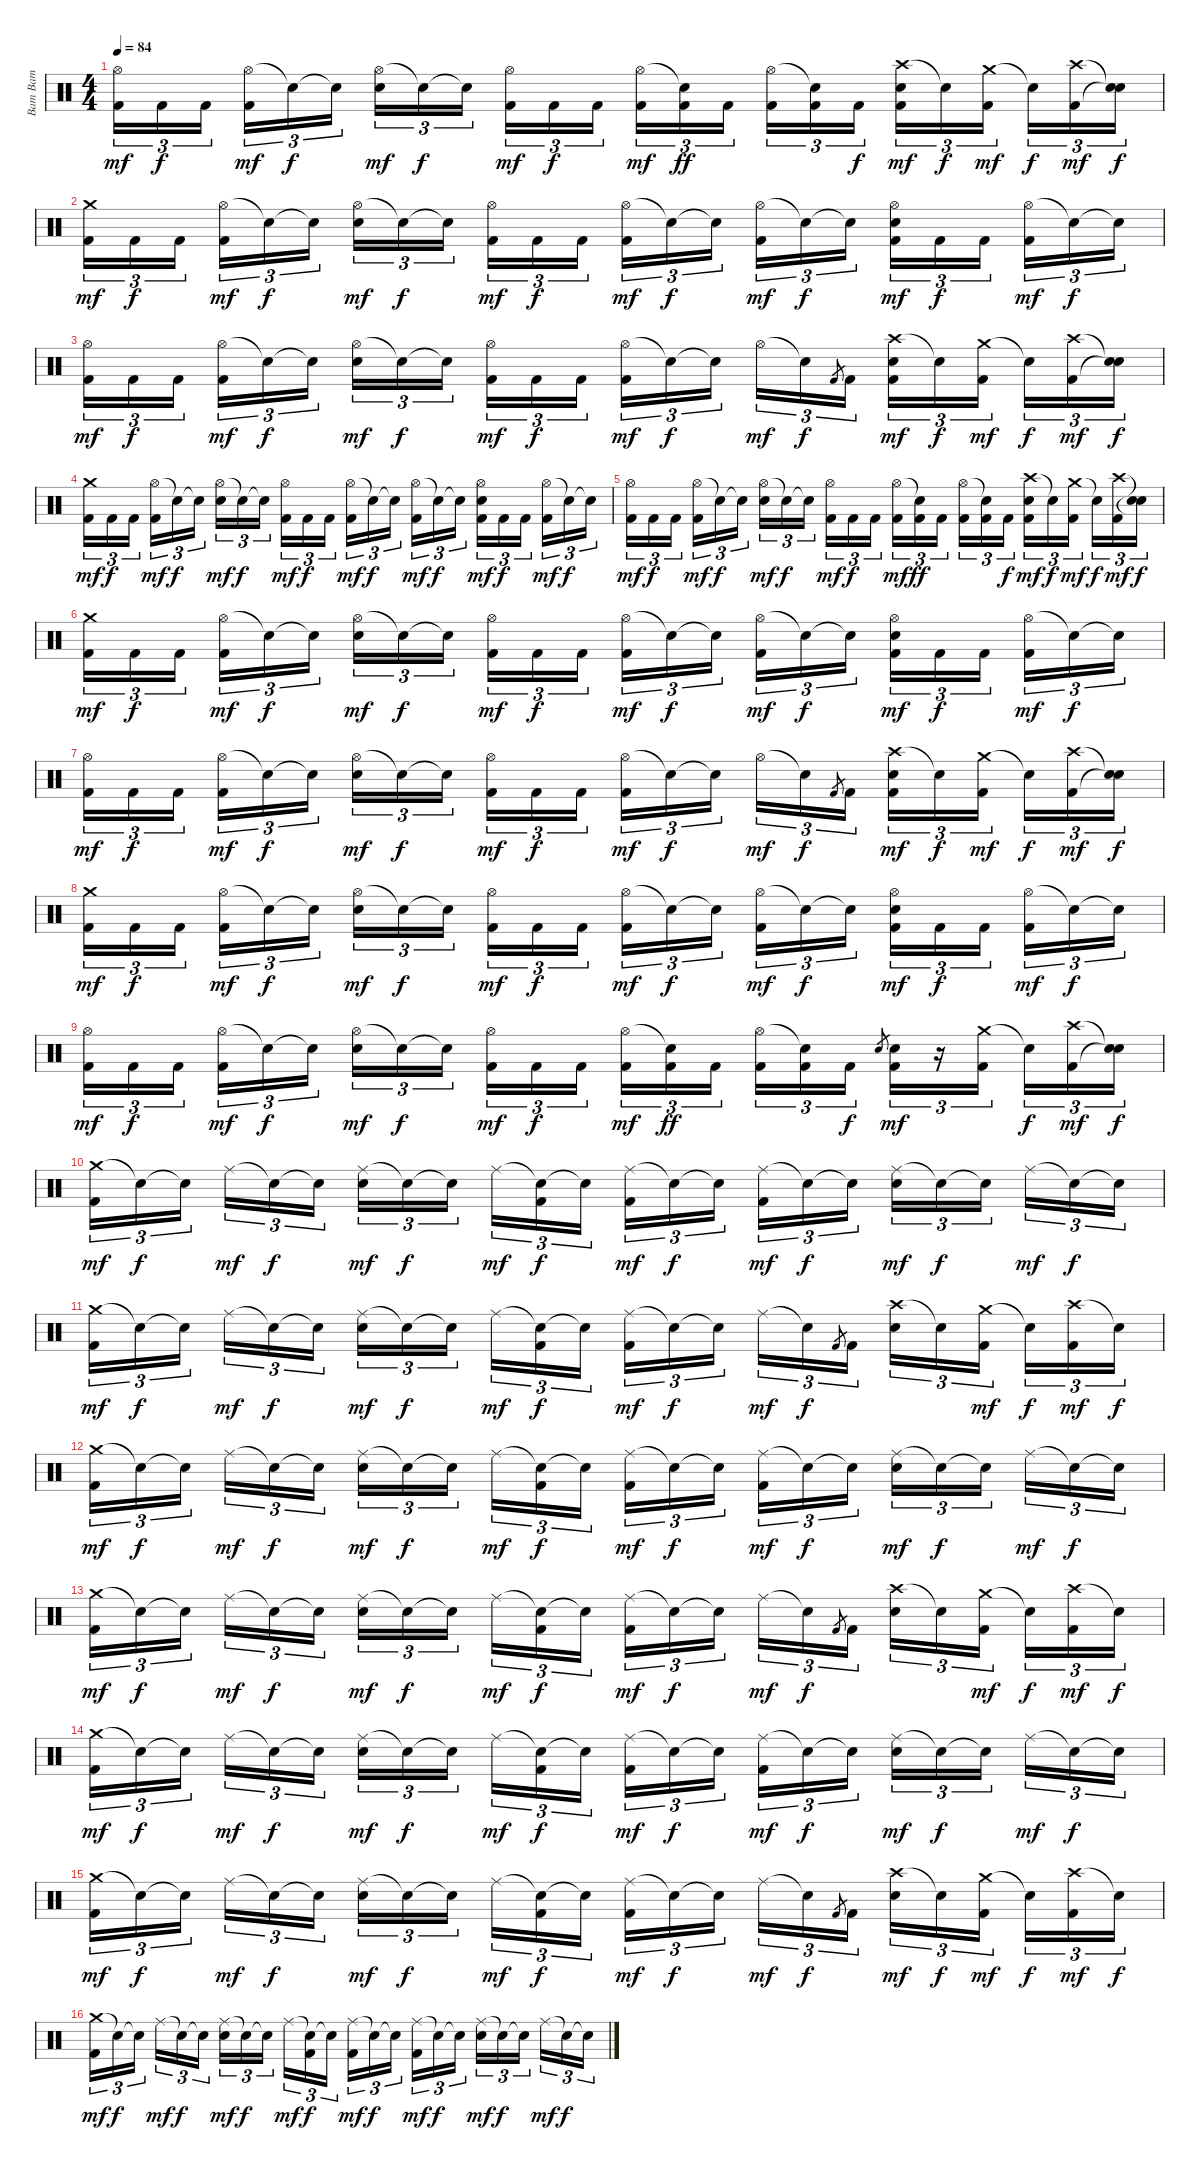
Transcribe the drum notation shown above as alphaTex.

\track ("Bam Bam" "Bam Bam") {instrument percussion}
\staff {score}
\articulation defaults
\ts (4 4)
\tempo 84
\clef neutral
\ks c
("Hi-Hat (open)" "Kick (hit) 2").16{tu (3 2) dy mf} "Kick (hit) 2".16{tu (3 2) dy f} "Kick (hit) 2".16{tu (3 2) beam splitsecondary} ("Hi-Hat (open)" "Kick (hit) 2").16{tu (3 2) dy mf} "Snare (hit)"{t}.16{tu (3 2) dy f} "Snare (hit)"{t}.16{tu (3 2)} ("Hi-Hat (open)" "Electric Snare (hit)").16{tu (3 2) dy mf} "Snare (hit)"{t}.16{tu (3 2) dy f} "Snare (hit)"{t}.16{tu (3 2) beam splitsecondary} ("Hi-Hat (open)" "Kick (hit) 2").16{tu (3 2) dy mf} "Kick (hit) 2".16{tu (3 2) dy f} "Kick (hit) 2".16{tu (3 2)} ("Hi-Hat (open)" "Kick (hit) 2").16{tu (3 2) dy mf} ("Snare (hit)"{t} "Kick (hit) 2").16{tu (3 2) dy ff} "Kick (hit) 2".16{tu (3 2) beam splitsecondary} ("Hi-Hat (open)" "Kick (hit) 2").16{tu (3 2)} ("Snare (hit)"{t} "Kick (hit) 2").16{tu (3 2)} "Kick (hit) 2".16{tu (3 2) dy f} ("Crash high (hit)" "Electric Snare (hit)" "Kick (hit) 2").16{tu (3 2) dy mf} "Snare (hit)"{t}.16{tu (3 2) dy f} ("Crash medium (hit)" "Kick (hit) 2").16{tu (3 2) dy mf beam splitsecondary} "Snare (hit)"{t}.16{tu (3 2) dy f} ("Crash high (hit)" "Kick (hit) 2").16{tu (3 2) dy mf} ("Snare (hit)"{t} "Snare (hit)"{t}).16{tu (3 2) dy f} |
("Crash medium (hit)" "Kick (hit) 2").16{tu (3 2) dy mf} "Kick (hit) 2".16{tu (3 2) dy f} "Kick (hit) 2".16{tu (3 2) beam splitsecondary} ("Hi-Hat (open)" "Kick (hit) 2").16{tu (3 2) dy mf} "Snare (hit)"{t}.16{tu (3 2) dy f} "Snare (hit)"{t}.16{tu (3 2)} ("Hi-Hat (open)" "Electric Snare (hit)").16{tu (3 2) dy mf} "Snare (hit)"{t}.16{tu (3 2) dy f} "Snare (hit)"{t}.16{tu (3 2) beam splitsecondary} ("Hi-Hat (open)" "Kick (hit) 2").16{tu (3 2) dy mf} "Kick (hit) 2".16{tu (3 2) dy f} "Kick (hit) 2".16{tu (3 2)} ("Hi-Hat (open)" "Kick (hit) 2").16{tu (3 2) dy mf} "Snare (hit)"{t}.16{tu (3 2) dy f} "Snare (hit)"{t}.16{tu (3 2) beam splitsecondary} ("Hi-Hat (open)" "Kick (hit) 2").16{tu (3 2) dy mf} "Snare (hit)"{t}.16{tu (3 2) dy f} "Snare (hit)"{t}.16{tu (3 2)} ("Hi-Hat (open)" "Electric Snare (hit)" "Kick (hit) 2").16{tu (3 2) dy mf} "Kick (hit) 2".16{tu (3 2) dy f} "Kick (hit) 2".16{tu (3 2) beam splitsecondary} ("Hi-Hat (open)" "Kick (hit) 2").16{tu (3 2) dy mf} "Snare (hit)"{t}.16{tu (3 2) dy f} "Snare (hit)"{t}.16{tu (3 2)} |
("Hi-Hat (open)" "Kick (hit) 2").16{tu (3 2) dy mf} "Kick (hit) 2".16{tu (3 2) dy f} "Kick (hit) 2".16{tu (3 2) beam splitsecondary} ("Hi-Hat (open)" "Kick (hit) 2").16{tu (3 2) dy mf} "Snare (hit)"{t}.16{tu (3 2) dy f} "Snare (hit)"{t}.16{tu (3 2)} ("Hi-Hat (open)" "Electric Snare (hit)").16{tu (3 2) dy mf} "Snare (hit)"{t}.16{tu (3 2) dy f} "Snare (hit)"{t}.16{tu (3 2) beam splitsecondary} ("Hi-Hat (open)" "Kick (hit) 2").16{tu (3 2) dy mf} "Kick (hit) 2".16{tu (3 2) dy f} "Kick (hit) 2".16{tu (3 2)} ("Hi-Hat (open)" "Kick (hit) 2").16{tu (3 2) dy mf} "Snare (hit)"{t}.16{tu (3 2) dy f} "Snare (hit)"{t}.16{tu (3 2) beam splitsecondary} "Hi-Hat (open)".16{tu (3 2) dy mf} "Snare (hit)"{t}.16{tu (3 2) dy f} "Kick (hit) 2".8{gr} "Kick (hit) 2".16{tu (3 2)} ("Crash high (hit)" "Electric Snare (hit)" "Kick (hit) 2").16{tu (3 2) dy mf} "Snare (hit)"{t}.16{tu (3 2) dy f} ("Crash medium (hit)" "Kick (hit) 2").16{tu (3 2) dy mf beam splitsecondary} "Snare (hit)"{t}.16{tu (3 2) dy f} ("Crash high (hit)" "Kick (hit) 2").16{tu (3 2) dy mf} ("Snare (hit)"{t} "Snare (hit)"{t}).16{tu (3 2) dy f} |
("Crash medium (hit)" "Kick (hit) 2").16{tu (3 2) dy mf} "Kick (hit) 2".16{tu (3 2) dy f} "Kick (hit) 2".16{tu (3 2) beam splitsecondary} ("Hi-Hat (open)" "Kick (hit) 2").16{tu (3 2) dy mf} "Snare (hit)"{t}.16{tu (3 2) dy f} "Snare (hit)"{t}.16{tu (3 2)} ("Hi-Hat (open)" "Electric Snare (hit)").16{tu (3 2) dy mf} "Snare (hit)"{t}.16{tu (3 2) dy f} "Snare (hit)"{t}.16{tu (3 2) beam splitsecondary} ("Hi-Hat (open)" "Kick (hit) 2").16{tu (3 2) dy mf} "Kick (hit) 2".16{tu (3 2) dy f} "Kick (hit) 2".16{tu (3 2)} ("Hi-Hat (open)" "Kick (hit) 2").16{tu (3 2) dy mf} "Snare (hit)"{t}.16{tu (3 2) dy f} "Snare (hit)"{t}.16{tu (3 2) beam splitsecondary} ("Hi-Hat (open)" "Kick (hit) 2").16{tu (3 2) dy mf} "Snare (hit)"{t}.16{tu (3 2) dy f} "Snare (hit)"{t}.16{tu (3 2)} ("Hi-Hat (open)" "Electric Snare (hit)" "Kick (hit) 2").16{tu (3 2) dy mf} "Kick (hit) 2".16{tu (3 2) dy f} "Kick (hit) 2".16{tu (3 2) beam splitsecondary} ("Hi-Hat (open)" "Kick (hit) 2").16{tu (3 2) dy mf} "Snare (hit)"{t}.16{tu (3 2) dy f} "Snare (hit)"{t}.16{tu (3 2)} |
("Hi-Hat (open)" "Kick (hit) 2").16{tu (3 2) dy mf} "Kick (hit) 2".16{tu (3 2) dy f} "Kick (hit) 2".16{tu (3 2) beam splitsecondary} ("Hi-Hat (open)" "Kick (hit) 2").16{tu (3 2) dy mf} "Snare (hit)"{t}.16{tu (3 2) dy f} "Snare (hit)"{t}.16{tu (3 2)} ("Hi-Hat (open)" "Electric Snare (hit)").16{tu (3 2) dy mf} "Snare (hit)"{t}.16{tu (3 2) dy f} "Snare (hit)"{t}.16{tu (3 2) beam splitsecondary} ("Hi-Hat (open)" "Kick (hit) 2").16{tu (3 2) dy mf} "Kick (hit) 2".16{tu (3 2) dy f} "Kick (hit) 2".16{tu (3 2)} ("Hi-Hat (open)" "Kick (hit) 2").16{tu (3 2) dy mf} ("Snare (hit)"{t} "Kick (hit) 2").16{tu (3 2) dy ff} "Kick (hit) 2".16{tu (3 2) beam splitsecondary} ("Hi-Hat (open)" "Kick (hit) 2").16{tu (3 2)} ("Snare (hit)"{t} "Kick (hit) 2").16{tu (3 2)} "Kick (hit) 2".16{tu (3 2) dy f} ("Crash high (hit)" "Electric Snare (hit)" "Kick (hit) 2").16{tu (3 2) dy mf} "Snare (hit)"{t}.16{tu (3 2) dy f} ("Crash medium (hit)" "Kick (hit) 2").16{tu (3 2) dy mf beam splitsecondary} "Snare (hit)"{t}.16{tu (3 2) dy f} ("Crash high (hit)" "Kick (hit) 2").16{tu (3 2) dy mf} ("Snare (hit)"{t} "Snare (hit)"{t}).16{tu (3 2) dy f} |
("Crash medium (hit)" "Kick (hit) 2").16{tu (3 2) dy mf} "Kick (hit) 2".16{tu (3 2) dy f} "Kick (hit) 2".16{tu (3 2) beam splitsecondary} ("Hi-Hat (open)" "Kick (hit) 2").16{tu (3 2) dy mf} "Snare (hit)"{t}.16{tu (3 2) dy f} "Snare (hit)"{t}.16{tu (3 2)} ("Hi-Hat (open)" "Electric Snare (hit)").16{tu (3 2) dy mf} "Snare (hit)"{t}.16{tu (3 2) dy f} "Snare (hit)"{t}.16{tu (3 2) beam splitsecondary} ("Hi-Hat (open)" "Kick (hit) 2").16{tu (3 2) dy mf} "Kick (hit) 2".16{tu (3 2) dy f} "Kick (hit) 2".16{tu (3 2)} ("Hi-Hat (open)" "Kick (hit) 2").16{tu (3 2) dy mf} "Snare (hit)"{t}.16{tu (3 2) dy f} "Snare (hit)"{t}.16{tu (3 2) beam splitsecondary} ("Hi-Hat (open)" "Kick (hit) 2").16{tu (3 2) dy mf} "Snare (hit)"{t}.16{tu (3 2) dy f} "Snare (hit)"{t}.16{tu (3 2)} ("Hi-Hat (open)" "Electric Snare (hit)" "Kick (hit) 2").16{tu (3 2) dy mf} "Kick (hit) 2".16{tu (3 2) dy f} "Kick (hit) 2".16{tu (3 2) beam splitsecondary} ("Hi-Hat (open)" "Kick (hit) 2").16{tu (3 2) dy mf} "Snare (hit)"{t}.16{tu (3 2) dy f} "Snare (hit)"{t}.16{tu (3 2)} |
("Hi-Hat (open)" "Kick (hit) 2").16{tu (3 2) dy mf} "Kick (hit) 2".16{tu (3 2) dy f} "Kick (hit) 2".16{tu (3 2) beam splitsecondary} ("Hi-Hat (open)" "Kick (hit) 2").16{tu (3 2) dy mf} "Snare (hit)"{t}.16{tu (3 2) dy f} "Snare (hit)"{t}.16{tu (3 2)} ("Hi-Hat (open)" "Electric Snare (hit)").16{tu (3 2) dy mf} "Snare (hit)"{t}.16{tu (3 2) dy f} "Snare (hit)"{t}.16{tu (3 2) beam splitsecondary} ("Hi-Hat (open)" "Kick (hit) 2").16{tu (3 2) dy mf} "Kick (hit) 2".16{tu (3 2) dy f} "Kick (hit) 2".16{tu (3 2)} ("Hi-Hat (open)" "Kick (hit) 2").16{tu (3 2) dy mf} "Snare (hit)"{t}.16{tu (3 2) dy f} "Snare (hit)"{t}.16{tu (3 2) beam splitsecondary} "Hi-Hat (open)".16{tu (3 2) dy mf} "Snare (hit)"{t}.16{tu (3 2) dy f} "Kick (hit) 2".8{gr} "Kick (hit) 2".16{tu (3 2)} ("Crash high (hit)" "Electric Snare (hit)" "Kick (hit) 2").16{tu (3 2) dy mf} "Snare (hit)"{t}.16{tu (3 2) dy f} ("Crash medium (hit)" "Kick (hit) 2").16{tu (3 2) dy mf beam splitsecondary} "Snare (hit)"{t}.16{tu (3 2) dy f} ("Crash high (hit)" "Kick (hit) 2").16{tu (3 2) dy mf} ("Snare (hit)"{t} "Snare (hit)"{t}).16{tu (3 2) dy f} |
("Crash medium (hit)" "Kick (hit) 2").16{tu (3 2) dy mf} "Kick (hit) 2".16{tu (3 2) dy f} "Kick (hit) 2".16{tu (3 2) beam splitsecondary} ("Hi-Hat (open)" "Kick (hit) 2").16{tu (3 2) dy mf} "Snare (hit)"{t}.16{tu (3 2) dy f} "Snare (hit)"{t}.16{tu (3 2)} ("Hi-Hat (open)" "Electric Snare (hit)").16{tu (3 2) dy mf} "Snare (hit)"{t}.16{tu (3 2) dy f} "Snare (hit)"{t}.16{tu (3 2) beam splitsecondary} ("Hi-Hat (open)" "Kick (hit) 2").16{tu (3 2) dy mf} "Kick (hit) 2".16{tu (3 2) dy f} "Kick (hit) 2".16{tu (3 2)} ("Hi-Hat (open)" "Kick (hit) 2").16{tu (3 2) dy mf} "Snare (hit)"{t}.16{tu (3 2) dy f} "Snare (hit)"{t}.16{tu (3 2) beam splitsecondary} ("Hi-Hat (open)" "Kick (hit) 2").16{tu (3 2) dy mf} "Snare (hit)"{t}.16{tu (3 2) dy f} "Snare (hit)"{t}.16{tu (3 2)} ("Hi-Hat (open)" "Electric Snare (hit)" "Kick (hit) 2").16{tu (3 2) dy mf} "Kick (hit) 2".16{tu (3 2) dy f} "Kick (hit) 2".16{tu (3 2) beam splitsecondary} ("Hi-Hat (open)" "Kick (hit) 2").16{tu (3 2) dy mf} "Snare (hit)"{t}.16{tu (3 2) dy f} "Snare (hit)"{t}.16{tu (3 2)} |
("Hi-Hat (open)" "Kick (hit) 2").16{tu (3 2) dy mf} "Kick (hit) 2".16{tu (3 2) dy f} "Kick (hit) 2".16{tu (3 2) beam splitsecondary} ("Hi-Hat (open)" "Kick (hit) 2").16{tu (3 2) dy mf} "Snare (hit)"{t}.16{tu (3 2) dy f} "Snare (hit)"{t}.16{tu (3 2)} ("Hi-Hat (open)" "Electric Snare (hit)").16{tu (3 2) dy mf} "Snare (hit)"{t}.16{tu (3 2) dy f} "Snare (hit)"{t}.16{tu (3 2) beam splitsecondary} ("Hi-Hat (open)" "Kick (hit) 2").16{tu (3 2) dy mf} "Kick (hit) 2".16{tu (3 2) dy f} "Kick (hit) 2".16{tu (3 2)} ("Hi-Hat (open)" "Kick (hit) 2").16{tu (3 2) dy mf} ("Snare (hit)"{t} "Kick (hit) 2").16{tu (3 2) dy ff} "Kick (hit) 2".16{tu (3 2) beam splitsecondary} ("Hi-Hat (open)" "Kick (hit) 2").16{tu (3 2)} ("Snare (hit)"{t} "Kick (hit) 2").16{tu (3 2)} "Kick (hit) 2".16{tu (3 2) dy f} "Electric Snare (hit)".8{gr} ("Electric Snare (hit)" "Kick (hit) 2").16{tu (3 2) dy mf} r.16{tu (3 2)} ("Crash medium (hit)" "Kick (hit) 2").16{tu (3 2) beam splitsecondary} "Snare (hit)"{t}.16{tu (3 2) dy f} ("Crash high (hit)" "Kick (hit) 2").16{tu (3 2) dy mf} ("Snare (hit)"{t} "Snare (hit)"{t}).16{tu (3 2) dy f} |
("Crash medium (hit)" "Kick (hit) 2").16{tu (3 2) dy mf} "Snare (hit)"{t}.16{tu (3 2) dy f} "Snare (hit)"{t}.16{tu (3 2) beam splitsecondary} "Ride (middle)".16{tu (3 2) dy mf} "Snare (hit)"{t}.16{tu (3 2) dy f} "Snare (hit)"{t}.16{tu (3 2)} ("Ride (middle)" "Electric Snare (hit)").16{tu (3 2) dy mf} "Snare (hit)"{t}.16{tu (3 2) dy f} "Snare (hit)"{t}.16{tu (3 2) beam splitsecondary} "Ride (middle)".16{tu (3 2) dy mf} ("Snare (hit)"{t} "Kick (hit) 2").16{tu (3 2) dy f} "Snare (hit)"{t}.16{tu (3 2)} ("Ride (middle)" "Kick (hit) 2").16{tu (3 2) dy mf} "Snare (hit)"{t}.16{tu (3 2) dy f} "Snare (hit)"{t}.16{tu (3 2) beam splitsecondary} ("Ride (middle)" "Kick (hit) 2").16{tu (3 2) dy mf} "Snare (hit)"{t}.16{tu (3 2) dy f} "Snare (hit)"{t}.16{tu (3 2)} ("Ride (middle)" "Electric Snare (hit)").16{tu (3 2) dy mf} "Snare (hit)"{t}.16{tu (3 2) dy f} "Snare (hit)"{t}.16{tu (3 2) beam splitsecondary} "Ride (middle)".16{tu (3 2) dy mf} "Snare (hit)"{t}.16{tu (3 2) dy f} "Snare (hit)"{t}.16{tu (3 2)} |
("Crash medium (hit)" "Kick (hit) 2").16{tu (3 2) dy mf} "Snare (hit)"{t}.16{tu (3 2) dy f} "Snare (hit)"{t}.16{tu (3 2) beam splitsecondary} "Ride (middle)".16{tu (3 2) dy mf} "Snare (hit)"{t}.16{tu (3 2) dy f} "Snare (hit)"{t}.16{tu (3 2)} ("Ride (middle)" "Electric Snare (hit)").16{tu (3 2) dy mf} "Snare (hit)"{t}.16{tu (3 2) dy f} "Snare (hit)"{t}.16{tu (3 2) beam splitsecondary} "Ride (middle)".16{tu (3 2) dy mf} ("Snare (hit)"{t} "Kick (hit) 2").16{tu (3 2) dy f} "Snare (hit)"{t}.16{tu (3 2)} ("Ride (middle)" "Kick (hit) 2").16{tu (3 2) dy mf} "Snare (hit)"{t}.16{tu (3 2) dy f} "Snare (hit)"{t}.16{tu (3 2) beam splitsecondary} "Ride (middle)".16{tu (3 2) dy mf} "Snare (hit)"{t}.16{tu (3 2) dy f} "Kick (hit) 2".8{gr} "Kick (hit) 2".16{tu (3 2)} ("Crash high (hit)" "Electric Snare (hit)").16{tu (3 2)} "Snare (hit)"{t}.16{tu (3 2)} ("Crash medium (hit)" "Kick (hit) 2").16{tu (3 2) dy mf beam splitsecondary} "Snare (hit)"{t}.16{tu (3 2) dy f} ("Crash high (hit)" "Kick (hit) 2").16{tu (3 2) dy mf} "Snare (hit)"{t}.16{tu (3 2) dy f} |
("Crash medium (hit)" "Kick (hit) 2").16{tu (3 2) dy mf} "Snare (hit)"{t}.16{tu (3 2) dy f} "Snare (hit)"{t}.16{tu (3 2) beam splitsecondary} "Ride (middle)".16{tu (3 2) dy mf} "Snare (hit)"{t}.16{tu (3 2) dy f} "Snare (hit)"{t}.16{tu (3 2)} ("Ride (middle)" "Electric Snare (hit)").16{tu (3 2) dy mf} "Snare (hit)"{t}.16{tu (3 2) dy f} "Snare (hit)"{t}.16{tu (3 2) beam splitsecondary} "Ride (middle)".16{tu (3 2) dy mf} ("Snare (hit)"{t} "Kick (hit) 2").16{tu (3 2) dy f} "Snare (hit)"{t}.16{tu (3 2)} ("Ride (middle)" "Kick (hit) 2").16{tu (3 2) dy mf} "Snare (hit)"{t}.16{tu (3 2) dy f} "Snare (hit)"{t}.16{tu (3 2) beam splitsecondary} ("Ride (middle)" "Kick (hit) 2").16{tu (3 2) dy mf} "Snare (hit)"{t}.16{tu (3 2) dy f} "Snare (hit)"{t}.16{tu (3 2)} ("Ride (middle)" "Electric Snare (hit)").16{tu (3 2) dy mf} "Snare (hit)"{t}.16{tu (3 2) dy f} "Snare (hit)"{t}.16{tu (3 2) beam splitsecondary} "Ride (middle)".16{tu (3 2) dy mf} "Snare (hit)"{t}.16{tu (3 2) dy f} "Snare (hit)"{t}.16{tu (3 2)} |
("Crash medium (hit)" "Kick (hit) 2").16{tu (3 2) dy mf} "Snare (hit)"{t}.16{tu (3 2) dy f} "Snare (hit)"{t}.16{tu (3 2) beam splitsecondary} "Ride (middle)".16{tu (3 2) dy mf} "Snare (hit)"{t}.16{tu (3 2) dy f} "Snare (hit)"{t}.16{tu (3 2)} ("Ride (middle)" "Electric Snare (hit)").16{tu (3 2) dy mf} "Snare (hit)"{t}.16{tu (3 2) dy f} "Snare (hit)"{t}.16{tu (3 2) beam splitsecondary} "Ride (middle)".16{tu (3 2) dy mf} ("Snare (hit)"{t} "Kick (hit) 2").16{tu (3 2) dy f} "Snare (hit)"{t}.16{tu (3 2)} ("Ride (middle)" "Kick (hit) 2").16{tu (3 2) dy mf} "Snare (hit)"{t}.16{tu (3 2) dy f} "Snare (hit)"{t}.16{tu (3 2) beam splitsecondary} "Ride (middle)".16{tu (3 2) dy mf} "Snare (hit)"{t}.16{tu (3 2) dy f} "Kick (hit) 2".8{gr} "Kick (hit) 2".16{tu (3 2)} ("Crash high (hit)" "Electric Snare (hit)").16{tu (3 2)} "Snare (hit)"{t}.16{tu (3 2)} ("Crash medium (hit)" "Kick (hit) 2").16{tu (3 2) dy mf beam splitsecondary} "Snare (hit)"{t}.16{tu (3 2) dy f} ("Crash high (hit)" "Kick (hit) 2").16{tu (3 2) dy mf} "Snare (hit)"{t}.16{tu (3 2) dy f} |
("Crash medium (hit)" "Kick (hit) 2").16{tu (3 2) dy mf} "Snare (hit)"{t}.16{tu (3 2) dy f} "Snare (hit)"{t}.16{tu (3 2) beam splitsecondary} "Ride (middle)".16{tu (3 2) dy mf} "Snare (hit)"{t}.16{tu (3 2) dy f} "Snare (hit)"{t}.16{tu (3 2)} ("Ride (middle)" "Electric Snare (hit)").16{tu (3 2) dy mf} "Snare (hit)"{t}.16{tu (3 2) dy f} "Snare (hit)"{t}.16{tu (3 2) beam splitsecondary} "Ride (middle)".16{tu (3 2) dy mf} ("Snare (hit)"{t} "Kick (hit) 2").16{tu (3 2) dy f} "Snare (hit)"{t}.16{tu (3 2)} ("Ride (middle)" "Kick (hit) 2").16{tu (3 2) dy mf} "Snare (hit)"{t}.16{tu (3 2) dy f} "Snare (hit)"{t}.16{tu (3 2) beam splitsecondary} ("Ride (middle)" "Kick (hit) 2").16{tu (3 2) dy mf} "Snare (hit)"{t}.16{tu (3 2) dy f} "Snare (hit)"{t}.16{tu (3 2)} ("Ride (middle)" "Electric Snare (hit)").16{tu (3 2) dy mf} "Snare (hit)"{t}.16{tu (3 2) dy f} "Snare (hit)"{t}.16{tu (3 2) beam splitsecondary} "Ride (middle)".16{tu (3 2) dy mf} "Snare (hit)"{t}.16{tu (3 2) dy f} "Snare (hit)"{t}.16{tu (3 2)} |
("Crash medium (hit)" "Kick (hit) 2").16{tu (3 2) dy mf} "Snare (hit)"{t}.16{tu (3 2) dy f} "Snare (hit)"{t}.16{tu (3 2) beam splitsecondary} "Ride (middle)".16{tu (3 2) dy mf} "Snare (hit)"{t}.16{tu (3 2) dy f} "Snare (hit)"{t}.16{tu (3 2)} ("Ride (middle)" "Electric Snare (hit)").16{tu (3 2) dy mf} "Snare (hit)"{t}.16{tu (3 2) dy f} "Snare (hit)"{t}.16{tu (3 2) beam splitsecondary} "Ride (middle)".16{tu (3 2) dy mf} ("Snare (hit)"{t} "Kick (hit) 2").16{tu (3 2) dy f} "Snare (hit)"{t}.16{tu (3 2)} ("Ride (middle)" "Kick (hit) 2").16{tu (3 2) dy mf} "Snare (hit)"{t}.16{tu (3 2) dy f} "Snare (hit)"{t}.16{tu (3 2) beam splitsecondary} "Ride (middle)".16{tu (3 2) dy mf} "Snare (hit)"{t}.16{tu (3 2) dy f} "Kick (hit) 2".8{gr} "Kick (hit) 2".16{tu (3 2)} ("Crash high (hit)" "Electric Snare (hit)").16{tu (3 2) dy mf} "Snare (hit)"{t}.16{tu (3 2) dy f} ("Crash medium (hit)" "Kick (hit) 2").16{tu (3 2) dy mf beam splitsecondary} "Snare (hit)"{t}.16{tu (3 2) dy f} ("Crash high (hit)" "Kick (hit) 2").16{tu (3 2) dy mf} "Snare (hit)"{t}.16{tu (3 2) dy f} |
("Crash medium (hit)" "Kick (hit) 2").16{tu (3 2) dy mf} "Snare (hit)"{t}.16{tu (3 2) dy f} "Snare (hit)"{t}.16{tu (3 2) beam splitsecondary} "Ride (middle)".16{tu (3 2) dy mf} "Snare (hit)"{t}.16{tu (3 2) dy f} "Snare (hit)"{t}.16{tu (3 2)} ("Ride (middle)" "Electric Snare (hit)").16{tu (3 2) dy mf} "Snare (hit)"{t}.16{tu (3 2) dy f} "Snare (hit)"{t}.16{tu (3 2) beam splitsecondary} "Ride (middle)".16{tu (3 2) dy mf} ("Snare (hit)"{t} "Kick (hit) 2").16{tu (3 2) dy f} "Snare (hit)"{t}.16{tu (3 2)} ("Ride (middle)" "Kick (hit) 2").16{tu (3 2) dy mf} "Snare (hit)"{t}.16{tu (3 2) dy f} "Snare (hit)"{t}.16{tu (3 2) beam splitsecondary} ("Ride (middle)" "Kick (hit) 2").16{tu (3 2) dy mf} "Snare (hit)"{t}.16{tu (3 2) dy f} "Snare (hit)"{t}.16{tu (3 2)} ("Ride (middle)" "Electric Snare (hit)").16{tu (3 2) dy mf} "Snare (hit)"{t}.16{tu (3 2) dy f} "Snare (hit)"{t}.16{tu (3 2) beam splitsecondary} "Ride (middle)".16{tu (3 2) dy mf} "Snare (hit)"{t}.16{tu (3 2) dy f} "Snare (hit)"{t}.16{tu (3 2)}
